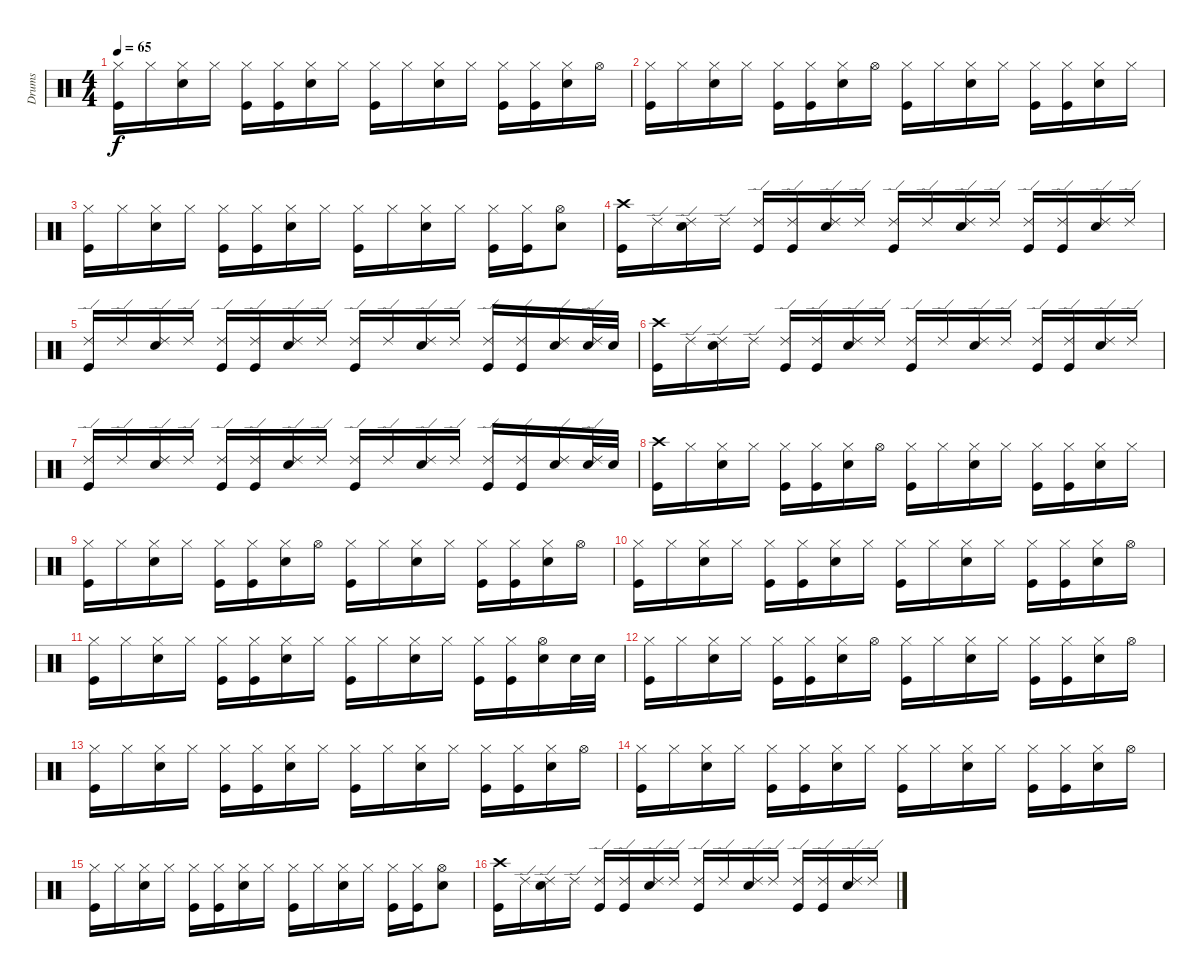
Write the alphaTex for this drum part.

\track ("Drums" "Drums") {instrument percussion}
\staff {score}
\articulation defaults
\ts (4 4)
\tempo 65
\clef neutral
\ks c
("Hi-Hat (closed)" "Kick (hit)").16{dy f} "Hi-Hat (closed)".16 ("Hi-Hat (closed)" "Snare (hit) 2").16 "Hi-Hat (closed)".16 ("Hi-Hat (closed)" "Kick (hit)").16 ("Hi-Hat (closed)" "Kick (hit)").16 ("Hi-Hat (closed)" "Snare (hit) 2").16 "Hi-Hat (closed)".16 ("Hi-Hat (closed)" "Kick (hit)").16 "Hi-Hat (closed)".16 ("Hi-Hat (closed)" "Snare (hit) 2").16 "Hi-Hat (closed)".16 ("Hi-Hat (closed)" "Kick (hit)").16 ("Hi-Hat (closed)" "Kick (hit)").16 ("Hi-Hat (closed)" "Snare (hit) 2").16 "Hi-Hat (open)".16 |
("Hi-Hat (closed)" "Kick (hit)").16 "Hi-Hat (closed)".16 ("Hi-Hat (closed)" "Snare (hit) 2").16 "Hi-Hat (closed)".16 ("Hi-Hat (closed)" "Kick (hit)").16 ("Hi-Hat (closed)" "Kick (hit)").16 ("Hi-Hat (closed)" "Snare (hit) 2").16 "Hi-Hat (open)".16 ("Hi-Hat (closed)" "Kick (hit)").16 "Hi-Hat (closed)".16 ("Hi-Hat (closed)" "Snare (hit) 2").16 "Hi-Hat (closed)".16 ("Hi-Hat (closed)" "Kick (hit)").16 ("Hi-Hat (closed)" "Kick (hit)").16 ("Hi-Hat (closed)" "Snare (hit) 2").16 "Hi-Hat (closed)".16 |
("Hi-Hat (closed)" "Kick (hit)").16 "Hi-Hat (closed)".16 ("Hi-Hat (closed)" "Snare (hit) 2").16 "Hi-Hat (closed)".16 ("Hi-Hat (closed)" "Kick (hit)").16 ("Hi-Hat (closed)" "Kick (hit)").16 ("Hi-Hat (closed)" "Snare (hit) 2").16 "Hi-Hat (closed)".16 ("Hi-Hat (closed)" "Kick (hit)").16 "Hi-Hat (closed)".16 ("Hi-Hat (closed)" "Snare (hit) 2").16 "Hi-Hat (closed)".16 ("Hi-Hat (closed)" "Kick (hit)").16 ("Hi-Hat (closed)" "Kick (hit)").16 ("Hi-Hat (open)" "Snare (hit) 2").8 |
("Crash high (hit)" "Kick (hit)").16 "Ride (edge) 2".16 ("Ride (edge) 2" "Snare (hit) 2").16 "Ride (edge) 2".16 ("Ride (edge) 2" "Kick (hit)").16 ("Ride (edge) 2" "Kick (hit)").16 ("Ride (edge) 2" "Snare (hit) 2").16 "Ride (edge) 2".16 ("Ride (edge) 2" "Kick (hit)").16 "Ride (edge) 2".16 ("Ride (edge) 2" "Snare (hit) 2").16 "Ride (edge) 2".16 ("Ride (edge) 2" "Kick (hit)").16 ("Ride (edge) 2" "Kick (hit)").16 ("Ride (edge) 2" "Snare (hit) 2").16 "Ride (edge) 2".16 |
("Ride (edge) 2" "Kick (hit)").16 "Ride (edge) 2".16 ("Ride (edge) 2" "Snare (hit) 2").16 "Ride (edge) 2".16 ("Ride (edge) 2" "Kick (hit)").16 ("Ride (edge) 2" "Kick (hit)").16 ("Ride (edge) 2" "Snare (hit) 2").16 "Ride (edge) 2".16 ("Ride (edge) 2" "Kick (hit)").16 "Ride (edge) 2".16 ("Ride (edge) 2" "Snare (hit) 2").16 "Ride (edge) 2".16 ("Ride (edge) 2" "Kick (hit)").16 ("Ride (edge) 2" "Kick (hit)").16 ("Ride (edge) 2" "Snare (hit) 2").16 ("Ride (edge) 2" "Snare (hit) 2").32 "Snare (hit) 2".32 |
("Crash high (hit)" "Kick (hit)").16 "Ride (edge) 2".16 ("Ride (edge) 2" "Snare (hit) 2").16 "Ride (edge) 2".16 ("Ride (edge) 2" "Kick (hit)").16 ("Ride (edge) 2" "Kick (hit)").16 ("Ride (edge) 2" "Snare (hit) 2").16 "Ride (edge) 2".16 ("Ride (edge) 2" "Kick (hit)").16 "Ride (edge) 2".16 ("Ride (edge) 2" "Snare (hit) 2").16 "Ride (edge) 2".16 ("Ride (edge) 2" "Kick (hit)").16 ("Ride (edge) 2" "Kick (hit)").16 ("Ride (edge) 2" "Snare (hit) 2").16 "Ride (edge) 2".16 |
("Ride (edge) 2" "Kick (hit)").16 "Ride (edge) 2".16 ("Ride (edge) 2" "Snare (hit) 2").16 "Ride (edge) 2".16 ("Ride (edge) 2" "Kick (hit)").16 ("Ride (edge) 2" "Kick (hit)").16 ("Ride (edge) 2" "Snare (hit) 2").16 "Ride (edge) 2".16 ("Ride (edge) 2" "Kick (hit)").16 "Ride (edge) 2".16 ("Ride (edge) 2" "Snare (hit) 2").16 "Ride (edge) 2".16 ("Ride (edge) 2" "Kick (hit)").16 ("Ride (edge) 2" "Kick (hit)").16 ("Ride (edge) 2" "Snare (hit) 2").16 ("Ride (edge) 2" "Snare (hit) 2").32 "Snare (hit) 2".32 |
("Crash high (hit)" "Kick (hit)").16 "Hi-Hat (closed)".16 ("Hi-Hat (closed)" "Snare (hit) 2").16 "Hi-Hat (closed)".16 ("Hi-Hat (closed)" "Kick (hit)").16 ("Hi-Hat (closed)" "Kick (hit)").16 ("Hi-Hat (closed)" "Snare (hit) 2").16 "Hi-Hat (open)".16 ("Hi-Hat (closed)" "Kick (hit)").16 "Hi-Hat (closed)".16 ("Hi-Hat (closed)" "Snare (hit) 2").16 "Hi-Hat (closed)".16 ("Hi-Hat (closed)" "Kick (hit)").16 ("Hi-Hat (closed)" "Kick (hit)").16 ("Hi-Hat (closed)" "Snare (hit) 2").16 "Hi-Hat (closed)".16 |
("Hi-Hat (closed)" "Kick (hit)").16 "Hi-Hat (closed)".16 ("Hi-Hat (closed)" "Snare (hit) 2").16 "Hi-Hat (closed)".16 ("Hi-Hat (closed)" "Kick (hit)").16 ("Hi-Hat (closed)" "Kick (hit)").16 ("Hi-Hat (closed)" "Snare (hit) 2").16 "Hi-Hat (open)".16 ("Hi-Hat (closed)" "Kick (hit)").16 "Hi-Hat (closed)".16 ("Hi-Hat (closed)" "Snare (hit) 2").16 "Hi-Hat (closed)".16 ("Hi-Hat (closed)" "Kick (hit)").16 ("Hi-Hat (closed)" "Kick (hit)").16 ("Hi-Hat (closed)" "Snare (hit) 2").16 "Hi-Hat (open)".16 |
("Hi-Hat (closed)" "Kick (hit)").16 "Hi-Hat (closed)".16 ("Hi-Hat (closed)" "Snare (hit) 2").16 "Hi-Hat (closed)".16 ("Hi-Hat (closed)" "Kick (hit)").16 ("Hi-Hat (closed)" "Kick (hit)").16 ("Hi-Hat (closed)" "Snare (hit) 2").16 "Hi-Hat (closed)".16 ("Hi-Hat (closed)" "Kick (hit)").16 "Hi-Hat (closed)".16 ("Hi-Hat (closed)" "Snare (hit) 2").16 "Hi-Hat (closed)".16 ("Hi-Hat (closed)" "Kick (hit)").16 ("Hi-Hat (closed)" "Kick (hit)").16 ("Hi-Hat (closed)" "Snare (hit) 2").16 "Hi-Hat (open)".16 |
("Hi-Hat (closed)" "Kick (hit)").16 "Hi-Hat (closed)".16 ("Hi-Hat (closed)" "Snare (hit) 2").16 "Hi-Hat (closed)".16 ("Hi-Hat (closed)" "Kick (hit)").16 ("Hi-Hat (closed)" "Kick (hit)").16 ("Hi-Hat (closed)" "Snare (hit) 2").16 "Hi-Hat (closed)".16 ("Hi-Hat (closed)" "Kick (hit)").16 "Hi-Hat (closed)".16 ("Hi-Hat (closed)" "Snare (hit) 2").16 "Hi-Hat (closed)".16 ("Hi-Hat (closed)" "Kick (hit)").16 ("Hi-Hat (closed)" "Kick (hit)").16 ("Hi-Hat (open)" "Snare (hit) 2").16 "Snare (hit) 2".32 "Snare (hit) 2".32 |
("Hi-Hat (closed)" "Kick (hit)").16 "Hi-Hat (closed)".16 ("Hi-Hat (closed)" "Snare (hit) 2").16 "Hi-Hat (closed)".16 ("Hi-Hat (closed)" "Kick (hit)").16 ("Hi-Hat (closed)" "Kick (hit)").16 ("Hi-Hat (closed)" "Snare (hit) 2").16 "Hi-Hat (open)".16 ("Hi-Hat (closed)" "Kick (hit)").16 "Hi-Hat (closed)".16 ("Hi-Hat (closed)" "Snare (hit) 2").16 "Hi-Hat (closed)".16 ("Hi-Hat (closed)" "Kick (hit)").16 ("Hi-Hat (closed)" "Kick (hit)").16 ("Hi-Hat (closed)" "Snare (hit) 2").16 "Hi-Hat (open)".16 |
("Hi-Hat (closed)" "Kick (hit)").16 "Hi-Hat (closed)".16 ("Hi-Hat (closed)" "Snare (hit) 2").16 "Hi-Hat (closed)".16 ("Hi-Hat (closed)" "Kick (hit)").16 ("Hi-Hat (closed)" "Kick (hit)").16 ("Hi-Hat (closed)" "Snare (hit) 2").16 "Hi-Hat (closed)".16 ("Hi-Hat (closed)" "Kick (hit)").16 "Hi-Hat (closed)".16 ("Hi-Hat (closed)" "Snare (hit) 2").16 "Hi-Hat (closed)".16 ("Hi-Hat (closed)" "Kick (hit)").16 ("Hi-Hat (closed)" "Kick (hit)").16 ("Hi-Hat (closed)" "Snare (hit) 2").16 "Hi-Hat (open)".16 |
("Hi-Hat (closed)" "Kick (hit)").16 "Hi-Hat (closed)".16 ("Hi-Hat (closed)" "Snare (hit) 2").16 "Hi-Hat (closed)".16 ("Hi-Hat (closed)" "Kick (hit)").16 ("Hi-Hat (closed)" "Kick (hit)").16 ("Hi-Hat (closed)" "Snare (hit) 2").16 "Hi-Hat (closed)".16 ("Hi-Hat (closed)" "Kick (hit)").16 "Hi-Hat (closed)".16 ("Hi-Hat (closed)" "Snare (hit) 2").16 "Hi-Hat (closed)".16 ("Hi-Hat (closed)" "Kick (hit)").16 ("Hi-Hat (closed)" "Kick (hit)").16 ("Hi-Hat (closed)" "Snare (hit) 2").16 "Hi-Hat (open)".16 |
("Hi-Hat (closed)" "Kick (hit)").16 "Hi-Hat (closed)".16 ("Hi-Hat (closed)" "Snare (hit) 2").16 "Hi-Hat (closed)".16 ("Hi-Hat (closed)" "Kick (hit)").16 ("Hi-Hat (closed)" "Kick (hit)").16 ("Hi-Hat (closed)" "Snare (hit) 2").16 "Hi-Hat (closed)".16 ("Hi-Hat (closed)" "Kick (hit)").16 "Hi-Hat (closed)".16 ("Hi-Hat (closed)" "Snare (hit) 2").16 "Hi-Hat (closed)".16 ("Hi-Hat (closed)" "Kick (hit)").16 ("Hi-Hat (closed)" "Kick (hit)").16 ("Hi-Hat (open)" "Snare (hit) 2").8 |
("Crash high (hit)" "Kick (hit)").16 "Ride (edge) 2".16 ("Ride (edge) 2" "Snare (hit) 2").16 "Ride (edge) 2".16 ("Ride (edge) 2" "Kick (hit)").16 ("Ride (edge) 2" "Kick (hit)").16 ("Ride (edge) 2" "Snare (hit) 2").16 "Ride (edge) 2".16 ("Ride (edge) 2" "Kick (hit)").16 "Ride (edge) 2".16 ("Ride (edge) 2" "Snare (hit) 2").16 "Ride (edge) 2".16 ("Ride (edge) 2" "Kick (hit)").16 ("Ride (edge) 2" "Kick (hit)").16 ("Ride (edge) 2" "Snare (hit) 2").16 "Ride (edge) 2".16
